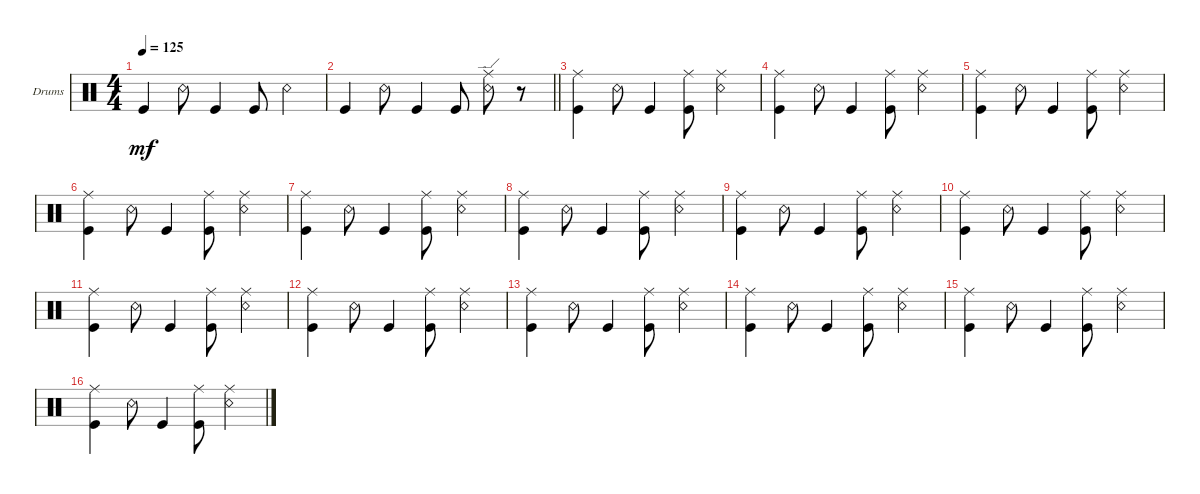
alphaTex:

\defaultSystemsLayout 4
\bracketExtendMode groupsimilarinstruments
\firstSystemTrackNameOrientation horizontal
\otherSystemsTrackNameOrientation horizontal
\track ("Drumkit" "Drums") {instrument percussion}
\staff {score}
\articulation defaults
\ts (4 4)
\tempo 125
\clef neutral
\ks c "Kick (hit)".4{dy mf} "Snare (rim shot)".8 "Kick (hit)".4 "Kick (hit)".8 "Snare (rim shot)".4
|
\barLineRight lightlight "Kick (hit)".4 "Snare (rim shot)".8 "Kick (hit)".4 "Kick (hit)".8
("Snare (rim shot)" "Ride (edge)").8 r.8 |
("Kick (hit)" "Ride (middle)").4 "Snare (rim shot)".8 "Kick (hit)".4 ("Kick (hit)" "Ride (middle)").8 ("Snare (rim shot)" "Ride (middle)").4 |
("Kick (hit)" "Ride (middle)").4 "Snare (rim shot)".8 "Kick (hit)".4 ("Kick (hit)" "Ride (middle)").8 ("Snare (rim shot)" "Ride (middle)").4 |
("Kick (hit)" "Ride (middle)").4 "Snare (rim shot)".8 "Kick (hit)".4 ("Kick (hit)" "Ride (middle)").8 ("Snare (rim shot)" "Ride (middle)").4 |
("Kick (hit)" "Ride (middle)").4 "Snare (rim shot)".8 "Kick (hit)".4 ("Kick (hit)" "Ride (middle)").8 ("Snare (rim shot)" "Ride (middle)").4 |
("Kick (hit)" "Ride (middle)").4 "Snare (rim shot)".8 "Kick (hit)".4 ("Kick (hit)" "Ride (middle)").8 ("Snare (rim shot)" "Ride (middle)").4 |
("Kick (hit)" "Ride (middle)").4 "Snare (rim shot)".8 "Kick (hit)".4 ("Kick (hit)" "Ride (middle)").8 ("Snare (rim shot)" "Ride (middle)").4 |
("Kick (hit)" "Ride (middle)").4 "Snare (rim shot)".8 "Kick (hit)".4 ("Kick (hit)" "Ride (middle)").8 ("Snare (rim shot)" "Ride (middle)").4 |
("Kick (hit)" "Ride (middle)").4 "Snare (rim shot)".8 "Kick (hit)".4 ("Kick (hit)" "Ride (middle)").8 ("Snare (rim shot)" "Ride (middle)").4 |
("Kick (hit)" "Ride (middle)").4 "Snare (rim shot)".8 "Kick (hit)".4 ("Kick (hit)" "Ride (middle)").8 ("Snare (rim shot)" "Ride (middle)").4 |
("Kick (hit)" "Ride (middle)").4 "Snare (rim shot)".8 "Kick (hit)".4 ("Kick (hit)" "Ride (middle)").8 ("Snare (rim shot)" "Ride (middle)").4 |
("Kick (hit)" "Ride (middle)").4 "Snare (rim shot)".8 "Kick (hit)".4 ("Kick (hit)" "Ride (middle)").8 ("Snare (rim shot)" "Ride (middle)").4 |
("Kick (hit)" "Ride (middle)").4 "Snare (rim shot)".8 "Kick (hit)".4 ("Kick (hit)" "Ride (middle)").8 ("Snare (rim shot)" "Ride (middle)").4 |
("Kick (hit)" "Ride (middle)").4 "Snare (rim shot)".8 "Kick (hit)".4 ("Kick (hit)" "Ride (middle)").8 ("Snare (rim shot)" "Ride (middle)").4 |
("Kick (hit)" "Ride (middle)").4 "Snare (rim shot)".8 "Kick (hit)".4 ("Kick (hit)" "Ride (middle)").8 ("Snare (rim shot)" "Ride (middle)").4
